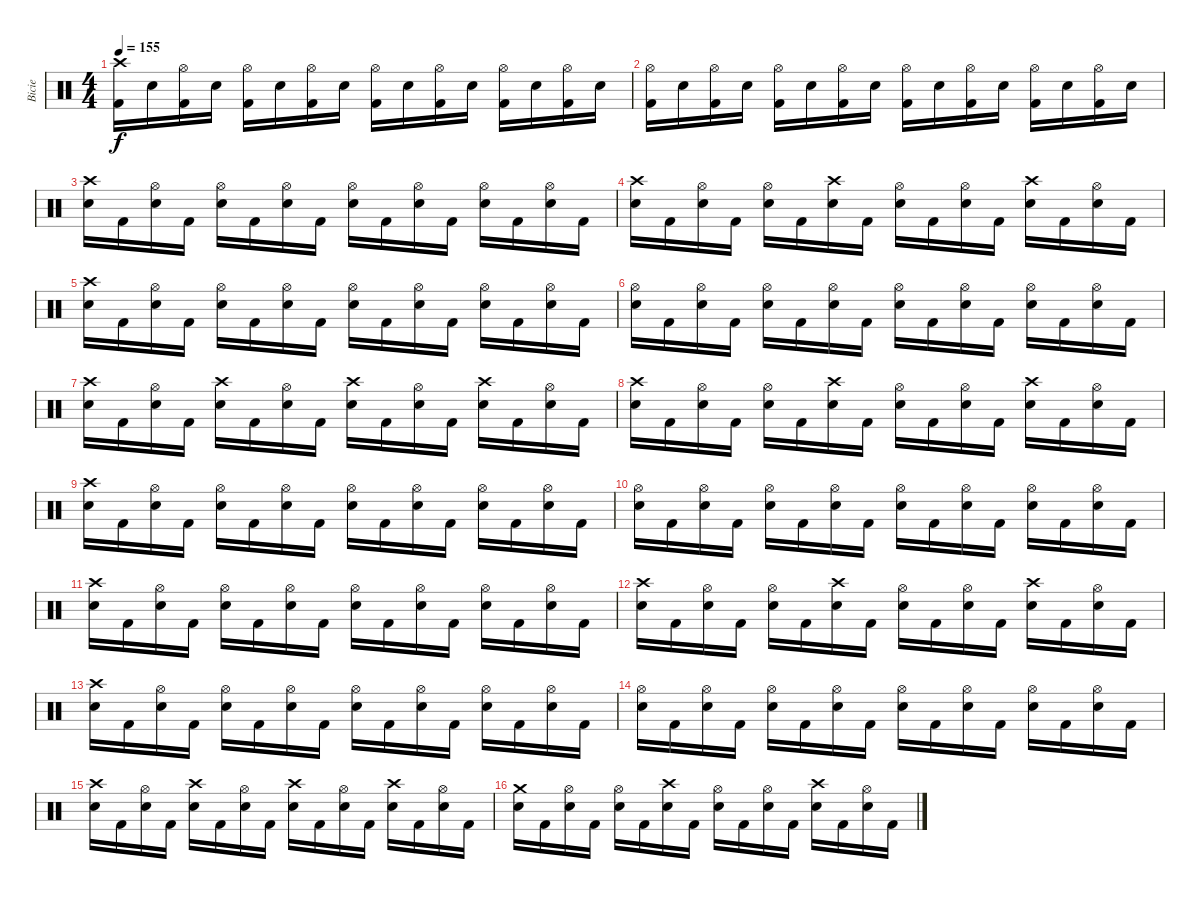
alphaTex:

\track ("Bicie" "Bicie") {instrument percussion}
\staff {score}
\articulation defaults
\ts (4 4)
\tempo 155
\clef neutral
\ks c
("Crash high (hit)" "Kick (hit) 2").16{dy f} "Snare (hit) 2".16 ("Hi-Hat (open)" "Kick (hit) 2").16 "Snare (hit) 2".16 ("Hi-Hat (open)" "Kick (hit) 2").16 "Snare (hit) 2".16 ("Hi-Hat (open)" "Kick (hit) 2").16 "Snare (hit) 2".16 ("Hi-Hat (open)" "Kick (hit) 2").16 "Snare (hit) 2".16 ("Hi-Hat (open)" "Kick (hit) 2").16 "Snare (hit) 2".16 ("Hi-Hat (open)" "Kick (hit) 2").16 "Snare (hit) 2".16 ("Hi-Hat (open)" "Kick (hit) 2").16 "Snare (hit) 2".16 |
("Hi-Hat (open)" "Kick (hit) 2").16 "Snare (hit) 2".16 ("Hi-Hat (open)" "Kick (hit) 2").16 "Snare (hit) 2".16 ("Hi-Hat (open)" "Kick (hit) 2").16 "Snare (hit) 2".16 ("Hi-Hat (open)" "Kick (hit) 2").16 "Snare (hit) 2".16 ("Hi-Hat (open)" "Kick (hit) 2").16 "Snare (hit) 2".16 ("Hi-Hat (open)" "Kick (hit) 2").16 "Snare (hit) 2".16 ("Hi-Hat (open)" "Kick (hit) 2").16 "Snare (hit) 2".16 ("Hi-Hat (open)" "Kick (hit) 2").16 "Snare (hit) 2".16 |
("Crash high (hit)" "Snare (hit) 2").16 "Kick (hit) 2".16 ("Hi-Hat (open)" "Snare (hit) 2").16 "Kick (hit) 2".16 ("Hi-Hat (open)" "Snare (hit) 2").16 "Kick (hit) 2".16 ("Hi-Hat (open)" "Snare (hit) 2").16 "Kick (hit) 2".16 ("Hi-Hat (open)" "Snare (hit) 2").16 "Kick (hit) 2".16 ("Hi-Hat (open)" "Snare (hit) 2").16 "Kick (hit) 2".16 ("Hi-Hat (open)" "Snare (hit) 2").16 "Kick (hit) 2".16 ("Hi-Hat (open)" "Snare (hit) 2").16 "Kick (hit) 2".16 |
("Crash high (hit)" "Snare (hit) 2").16 "Kick (hit) 2".16 ("Hi-Hat (open)" "Snare (hit) 2").16 "Kick (hit) 2".16 ("Hi-Hat (open)" "Snare (hit) 2").16 "Kick (hit) 2".16 ("Crash high (hit)" "Snare (hit) 2").16 "Kick (hit) 2".16 ("Hi-Hat (open)" "Snare (hit) 2").16 "Kick (hit) 2".16 ("Hi-Hat (open)" "Snare (hit) 2").16 "Kick (hit) 2".16 ("Crash high (hit)" "Snare (hit) 2").16 "Kick (hit) 2".16 ("Hi-Hat (open)" "Snare (hit) 2").16 "Kick (hit) 2".16 |
("Crash high (hit)" "Snare (hit) 2").16 "Kick (hit) 2".16 ("Hi-Hat (open)" "Snare (hit) 2").16 "Kick (hit) 2".16 ("Hi-Hat (open)" "Snare (hit) 2").16 "Kick (hit) 2".16 ("Hi-Hat (open)" "Snare (hit) 2").16 "Kick (hit) 2".16 ("Hi-Hat (open)" "Snare (hit) 2").16 "Kick (hit) 2".16 ("Hi-Hat (open)" "Snare (hit) 2").16 "Kick (hit) 2".16 ("Hi-Hat (open)" "Snare (hit) 2").16 "Kick (hit) 2".16 ("Hi-Hat (open)" "Snare (hit) 2").16 "Kick (hit) 2".16 |
("Hi-Hat (open)" "Snare (hit) 2").16 "Kick (hit) 2".16 ("Hi-Hat (open)" "Snare (hit) 2").16 "Kick (hit) 2".16 ("Hi-Hat (open)" "Snare (hit) 2").16 "Kick (hit) 2".16 ("Hi-Hat (open)" "Snare (hit) 2").16 "Kick (hit) 2".16 ("Hi-Hat (open)" "Snare (hit) 2").16 "Kick (hit) 2".16 ("Hi-Hat (open)" "Snare (hit) 2").16 "Kick (hit) 2".16 ("Hi-Hat (open)" "Snare (hit) 2").16 "Kick (hit) 2".16 ("Hi-Hat (open)" "Snare (hit) 2").16 "Kick (hit) 2".16 |
("Crash high (hit)" "Snare (hit) 2").16 "Kick (hit) 2".16 ("Hi-Hat (open)" "Snare (hit) 2").16 "Kick (hit) 2".16 ("Crash high (hit)" "Snare (hit) 2").16 "Kick (hit) 2".16 ("Hi-Hat (open)" "Snare (hit) 2").16 "Kick (hit) 2".16 ("Crash high (hit)" "Snare (hit) 2").16 "Kick (hit) 2".16 ("Hi-Hat (open)" "Snare (hit) 2").16 "Kick (hit) 2".16 ("Crash high (hit)" "Snare (hit) 2").16 "Kick (hit) 2".16 ("Hi-Hat (open)" "Snare (hit) 2").16 "Kick (hit) 2".16 |
("Crash high (hit)" "Snare (hit) 2").16 "Kick (hit) 2".16 ("Hi-Hat (open)" "Snare (hit) 2").16 "Kick (hit) 2".16 ("Hi-Hat (open)" "Snare (hit) 2").16 "Kick (hit) 2".16 ("Crash high (hit)" "Snare (hit) 2").16 "Kick (hit) 2".16 ("Hi-Hat (open)" "Snare (hit) 2").16 "Kick (hit) 2".16 ("Hi-Hat (open)" "Snare (hit) 2").16 "Kick (hit) 2".16 ("Crash high (hit)" "Snare (hit) 2").16 "Kick (hit) 2".16 ("Hi-Hat (open)" "Snare (hit) 2").16 "Kick (hit) 2".16 |
("Crash high (hit)" "Snare (hit) 2").16 "Kick (hit) 2".16 ("Hi-Hat (open)" "Snare (hit) 2").16 "Kick (hit) 2".16 ("Hi-Hat (open)" "Snare (hit) 2").16 "Kick (hit) 2".16 ("Hi-Hat (open)" "Snare (hit) 2").16 "Kick (hit) 2".16 ("Hi-Hat (open)" "Snare (hit) 2").16 "Kick (hit) 2".16 ("Hi-Hat (open)" "Snare (hit) 2").16 "Kick (hit) 2".16 ("Hi-Hat (open)" "Snare (hit) 2").16 "Kick (hit) 2".16 ("Hi-Hat (open)" "Snare (hit) 2").16 "Kick (hit) 2".16 |
("Hi-Hat (open)" "Snare (hit) 2").16 "Kick (hit) 2".16 ("Hi-Hat (open)" "Snare (hit) 2").16 "Kick (hit) 2".16 ("Hi-Hat (open)" "Snare (hit) 2").16 "Kick (hit) 2".16 ("Hi-Hat (open)" "Snare (hit) 2").16 "Kick (hit) 2".16 ("Hi-Hat (open)" "Snare (hit) 2").16 "Kick (hit) 2".16 ("Hi-Hat (open)" "Snare (hit) 2").16 "Kick (hit) 2".16 ("Hi-Hat (open)" "Snare (hit) 2").16 "Kick (hit) 2".16 ("Hi-Hat (open)" "Snare (hit) 2").16 "Kick (hit) 2".16 |
("Crash high (hit)" "Snare (hit) 2").16 "Kick (hit) 2".16 ("Hi-Hat (open)" "Snare (hit) 2").16 "Kick (hit) 2".16 ("Hi-Hat (open)" "Snare (hit) 2").16 "Kick (hit) 2".16 ("Hi-Hat (open)" "Snare (hit) 2").16 "Kick (hit) 2".16 ("Hi-Hat (open)" "Snare (hit) 2").16 "Kick (hit) 2".16 ("Hi-Hat (open)" "Snare (hit) 2").16 "Kick (hit) 2".16 ("Hi-Hat (open)" "Snare (hit) 2").16 "Kick (hit) 2".16 ("Hi-Hat (open)" "Snare (hit) 2").16 "Kick (hit) 2".16 |
("Crash high (hit)" "Snare (hit) 2").16 "Kick (hit) 2".16 ("Hi-Hat (open)" "Snare (hit) 2").16 "Kick (hit) 2".16 ("Hi-Hat (open)" "Snare (hit) 2").16 "Kick (hit) 2".16 ("Crash high (hit)" "Snare (hit) 2").16 "Kick (hit) 2".16 ("Hi-Hat (open)" "Snare (hit) 2").16 "Kick (hit) 2".16 ("Hi-Hat (open)" "Snare (hit) 2").16 "Kick (hit) 2".16 ("Crash high (hit)" "Snare (hit) 2").16 "Kick (hit) 2".16 ("Hi-Hat (open)" "Snare (hit) 2").16 "Kick (hit) 2".16 |
("Crash high (hit)" "Snare (hit) 2").16 "Kick (hit) 2".16 ("Hi-Hat (open)" "Snare (hit) 2").16 "Kick (hit) 2".16 ("Hi-Hat (open)" "Snare (hit) 2").16 "Kick (hit) 2".16 ("Hi-Hat (open)" "Snare (hit) 2").16 "Kick (hit) 2".16 ("Hi-Hat (open)" "Snare (hit) 2").16 "Kick (hit) 2".16 ("Hi-Hat (open)" "Snare (hit) 2").16 "Kick (hit) 2".16 ("Hi-Hat (open)" "Snare (hit) 2").16 "Kick (hit) 2".16 ("Hi-Hat (open)" "Snare (hit) 2").16 "Kick (hit) 2".16 |
("Hi-Hat (open)" "Snare (hit) 2").16 "Kick (hit) 2".16 ("Hi-Hat (open)" "Snare (hit) 2").16 "Kick (hit) 2".16 ("Hi-Hat (open)" "Snare (hit) 2").16 "Kick (hit) 2".16 ("Hi-Hat (open)" "Snare (hit) 2").16 "Kick (hit) 2".16 ("Hi-Hat (open)" "Snare (hit) 2").16 "Kick (hit) 2".16 ("Hi-Hat (open)" "Snare (hit) 2").16 "Kick (hit) 2".16 ("Hi-Hat (open)" "Snare (hit) 2").16 "Kick (hit) 2".16 ("Hi-Hat (open)" "Snare (hit) 2").16 "Kick (hit) 2".16 |
("Crash high (hit)" "Snare (hit) 2").16 "Kick (hit) 2".16 ("Hi-Hat (open)" "Snare (hit) 2").16 "Kick (hit) 2".16 ("Crash high (hit)" "Snare (hit) 2").16 "Kick (hit) 2".16 ("Hi-Hat (open)" "Snare (hit) 2").16 "Kick (hit) 2".16 ("Crash high (hit)" "Snare (hit) 2").16 "Kick (hit) 2".16 ("Hi-Hat (open)" "Snare (hit) 2").16 "Kick (hit) 2".16 ("Crash high (hit)" "Snare (hit) 2").16 "Kick (hit) 2".16 ("Hi-Hat (open)" "Snare (hit) 2").16 "Kick (hit) 2".16 |
("Crash medium (hit)" "Snare (hit) 2").16 "Kick (hit) 2".16 ("Hi-Hat (open)" "Snare (hit) 2").16 "Kick (hit) 2".16 ("Hi-Hat (open)" "Snare (hit) 2").16 "Kick (hit) 2".16 ("Crash high (hit)" "Snare (hit) 2").16 "Kick (hit) 2".16 ("Hi-Hat (open)" "Snare (hit) 2").16 "Kick (hit) 2".16 ("Hi-Hat (open)" "Snare (hit) 2").16 "Kick (hit) 2".16 ("Crash high (hit)" "Snare (hit) 2").16 "Kick (hit) 2".16 ("Hi-Hat (open)" "Snare (hit) 2").16 "Kick (hit) 2".16
